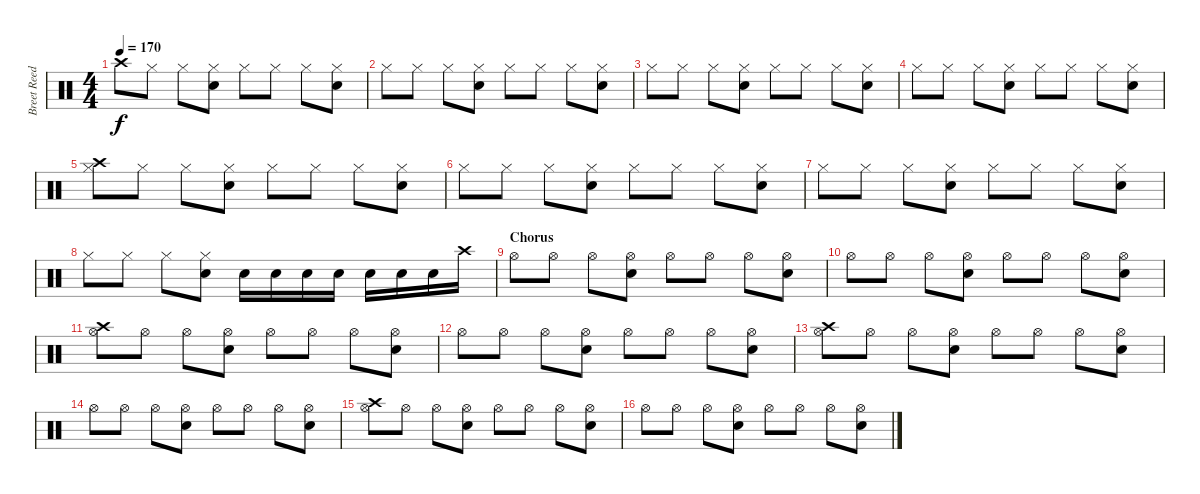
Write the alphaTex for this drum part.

\track ("Breet Reed" "Breet Reed") {instrument percussion}
\staff {score}
\articulation defaults
\ts (4 4)
\tempo 170
\clef neutral
\ks c "Crash high (hit)".8{dy f} "Hi-Hat (closed)".8 "Hi-Hat (closed)".8
("Snare (hit) 2" "Hi-Hat (closed)").8 "Hi-Hat (closed)".8 "Hi-Hat (closed)".8 "Hi-Hat (closed)".8 ("Snare (hit) 2" "Hi-Hat (closed)").8 |
"Hi-Hat (closed)".8 "Hi-Hat (closed)".8 "Hi-Hat (closed)".8 ("Snare (hit) 2" "Hi-Hat (closed)").8 "Hi-Hat (closed)".8 "Hi-Hat (closed)".8 "Hi-Hat (closed)".8 ("Snare (hit) 2" "Hi-Hat (closed)").8 |
"Hi-Hat (closed)".8 "Hi-Hat (closed)".8 "Hi-Hat (closed)".8 ("Snare (hit) 2" "Hi-Hat (closed)").8 "Hi-Hat (closed)".8 "Hi-Hat (closed)".8 "Hi-Hat (closed)".8 ("Snare (hit) 2" "Hi-Hat (closed)").8 |
"Hi-Hat (closed)".8 "Hi-Hat (closed)".8 "Hi-Hat (closed)".8 ("Snare (hit) 2" "Hi-Hat (closed)").8 "Hi-Hat (closed)".8 "Hi-Hat (closed)".8 "Hi-Hat (closed)".8 ("Snare (hit) 2" "Hi-Hat (closed)").8 |
("Crash high (hit)" "Hi-Hat (closed)").8 "Hi-Hat (closed)".8 "Hi-Hat (closed)".8 ("Snare (hit) 2" "Hi-Hat (closed)").8 "Hi-Hat (closed)".8 "Hi-Hat (closed)".8 "Hi-Hat (closed)".8 ("Snare (hit) 2" "Hi-Hat (closed)").8 |
"Hi-Hat (closed)".8 "Hi-Hat (closed)".8 "Hi-Hat (closed)".8 ("Snare (hit) 2" "Hi-Hat (closed)").8 "Hi-Hat (closed)".8 "Hi-Hat (closed)".8 "Hi-Hat (closed)".8 ("Snare (hit) 2" "Hi-Hat (closed)").8 |
"Hi-Hat (closed)".8 "Hi-Hat (closed)".8 "Hi-Hat (closed)".8 ("Snare (hit) 2" "Hi-Hat (closed)").8 "Hi-Hat (closed)".8 "Hi-Hat (closed)".8 "Hi-Hat (closed)".8 ("Snare (hit) 2" "Hi-Hat (closed)").8 |
"Hi-Hat (closed)".8 "Hi-Hat (closed)".8 "Hi-Hat (closed)".8 ("Snare (hit) 2" "Hi-Hat (closed)").8 "Snare (hit) 2".16 "Snare (hit) 2".16 "Snare (hit) 2".16 "Snare (hit) 2".16 "Snare (hit) 2".16 "Snare (hit) 2".16 "Snare (hit) 2".16 "Crash high (hit)".16 |
\section ("" "Chorus")
"Hi-Hat (open)".8 "Hi-Hat (open)".8 "Hi-Hat (open)".8 ("Snare (hit) 2" "Hi-Hat (open)").8 "Hi-Hat (open)".8 "Hi-Hat (open)".8 "Hi-Hat (open)".8 ("Snare (hit) 2" "Hi-Hat (open)").8 |
"Hi-Hat (open)".8 "Hi-Hat (open)".8 "Hi-Hat (open)".8 ("Snare (hit) 2" "Hi-Hat (open)").8 "Hi-Hat (open)".8 "Hi-Hat (open)".8 "Hi-Hat (open)".8 ("Snare (hit) 2" "Hi-Hat (open)").8 |
("Crash high (hit)" "Hi-Hat (open)").8 "Hi-Hat (open)".8 "Hi-Hat (open)".8 ("Snare (hit) 2" "Hi-Hat (open)").8 "Hi-Hat (open)".8 "Hi-Hat (open)".8 "Hi-Hat (open)".8 ("Snare (hit) 2" "Hi-Hat (open)").8 |
"Hi-Hat (open)".8 "Hi-Hat (open)".8 "Hi-Hat (open)".8 ("Snare (hit) 2" "Hi-Hat (open)").8 "Hi-Hat (open)".8 "Hi-Hat (open)".8 "Hi-Hat (open)".8 ("Snare (hit) 2" "Hi-Hat (open)").8 |
("Crash high (hit)" "Hi-Hat (open)").8 "Hi-Hat (open)".8 "Hi-Hat (open)".8 ("Snare (hit) 2" "Hi-Hat (open)").8 "Hi-Hat (open)".8 "Hi-Hat (open)".8 "Hi-Hat (open)".8 ("Snare (hit) 2" "Hi-Hat (open)").8 |
"Hi-Hat (open)".8 "Hi-Hat (open)".8 "Hi-Hat (open)".8 ("Snare (hit) 2" "Hi-Hat (open)").8 "Hi-Hat (open)".8 "Hi-Hat (open)".8 "Hi-Hat (open)".8 ("Snare (hit) 2" "Hi-Hat (open)").8 |
("Crash high (hit)" "Hi-Hat (open)").8 "Hi-Hat (open)".8 "Hi-Hat (open)".8 ("Snare (hit) 2" "Hi-Hat (open)").8 "Hi-Hat (open)".8 "Hi-Hat (open)".8 "Hi-Hat (open)".8 ("Snare (hit) 2" "Hi-Hat (open)").8 |
"Hi-Hat (open)".8 "Hi-Hat (open)".8 "Hi-Hat (open)".8 ("Snare (hit) 2" "Hi-Hat (open)").8 "Hi-Hat (open)".8 "Hi-Hat (open)".8 "Hi-Hat (open)".8 ("Snare (hit) 2" "Hi-Hat (open)").8
